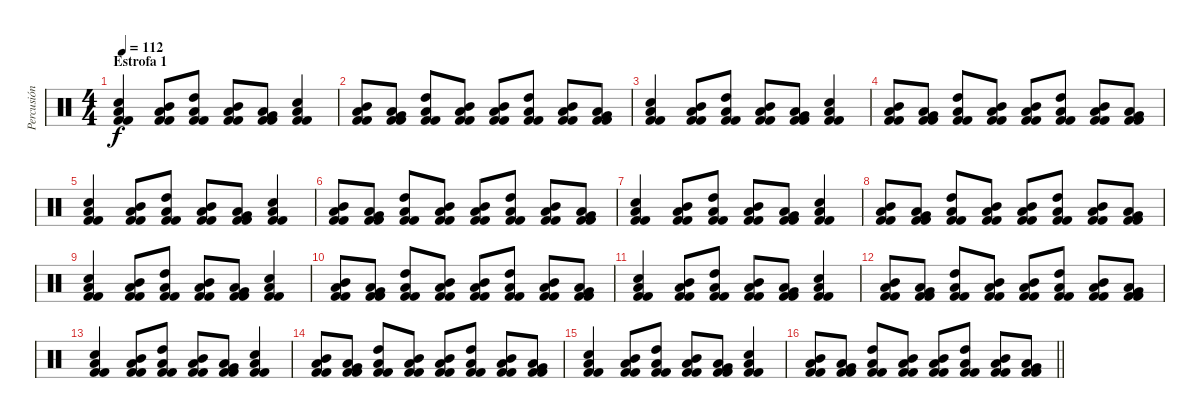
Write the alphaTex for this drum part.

\track ("Percusión" "Percusión") {instrument percussion}
\staff {score}
\articulation defaults
\ts (4 4)
\section ("" "Estrofa 1")
\tempo 112
\clef neutral
\ks c
("Kick (hit) 2" "Electric Snare (hit)" "Low Tom (hit)" "Kick (hit) 2").4{dy f} ("Kick (hit) 2" "Mid Tom (hit)" "Low Tom (hit)" "Kick (hit) 2").8 ("Kick (hit) 2" "High Tom (hit)" "Low Tom (hit)" "Kick (hit) 2").8 ("Kick (hit) 2" "Mid Tom (hit)" "Low Tom (hit)" "Kick (hit) 2").8 ("Kick (hit) 2" "Low Tom (hit)" "Very Low Tom (hit)" "Kick (hit) 2").8 ("Kick (hit) 2" "Electric Snare (hit)" "Low Tom (hit)" "Kick (hit) 2").4 |
("Kick (hit) 2" "Low Tom (hit)" "Mid Tom (hit)" "Kick (hit) 2").8 ("Kick (hit) 2" "Very Low Tom (hit)" "Low Tom (hit)" "Kick (hit) 2").8 ("Kick (hit) 2" "High Tom (hit)" "Low Tom (hit)" "Kick (hit) 2").8 ("Kick (hit) 2" "Low Tom (hit)" "Mid Tom (hit)" "Kick (hit) 2").8 ("Kick (hit) 2" "Low Tom (hit)" "Mid Tom (hit)" "Kick (hit) 2").8 ("Kick (hit) 2" "High Tom (hit)" "Low Tom (hit)" "Kick (hit) 2").8 ("Kick (hit) 2" "Low Tom (hit)" "Mid Tom (hit)" "Kick (hit) 2").8 ("Kick (hit) 2" "Very Low Tom (hit)" "Low Tom (hit)" "Kick (hit) 2").8 |
("Kick (hit) 2" "Electric Snare (hit)" "Low Tom (hit)" "Kick (hit) 2").4 ("Kick (hit) 2" "Mid Tom (hit)" "Low Tom (hit)" "Kick (hit) 2").8 ("Kick (hit) 2" "High Tom (hit)" "Low Tom (hit)" "Kick (hit) 2").8 ("Kick (hit) 2" "Mid Tom (hit)" "Low Tom (hit)" "Kick (hit) 2").8 ("Kick (hit) 2" "Low Tom (hit)" "Very Low Tom (hit)" "Kick (hit) 2").8 ("Kick (hit) 2" "Electric Snare (hit)" "Low Tom (hit)" "Kick (hit) 2").4 |
("Kick (hit) 2" "Low Tom (hit)" "Mid Tom (hit)" "Kick (hit) 2").8 ("Kick (hit) 2" "Very Low Tom (hit)" "Low Tom (hit)" "Kick (hit) 2").8 ("Kick (hit) 2" "High Tom (hit)" "Low Tom (hit)" "Kick (hit) 2").8 ("Kick (hit) 2" "Low Tom (hit)" "Mid Tom (hit)" "Kick (hit) 2").8 ("Kick (hit) 2" "Low Tom (hit)" "Mid Tom (hit)" "Kick (hit) 2").8 ("Kick (hit) 2" "High Tom (hit)" "Low Tom (hit)" "Kick (hit) 2").8 ("Kick (hit) 2" "Low Tom (hit)" "Mid Tom (hit)" "Kick (hit) 2").8 ("Kick (hit) 2" "Very Low Tom (hit)" "Low Tom (hit)" "Kick (hit) 2").8 |
("Kick (hit) 2" "Electric Snare (hit)" "Low Tom (hit)" "Kick (hit) 2").4 ("Kick (hit) 2" "Mid Tom (hit)" "Low Tom (hit)" "Kick (hit) 2").8 ("Kick (hit) 2" "High Tom (hit)" "Low Tom (hit)" "Kick (hit) 2").8 ("Kick (hit) 2" "Mid Tom (hit)" "Low Tom (hit)" "Kick (hit) 2").8 ("Kick (hit) 2" "Low Tom (hit)" "Very Low Tom (hit)" "Kick (hit) 2").8 ("Kick (hit) 2" "Electric Snare (hit)" "Low Tom (hit)" "Kick (hit) 2").4 |
("Kick (hit) 2" "Low Tom (hit)" "Mid Tom (hit)" "Kick (hit) 2").8 ("Kick (hit) 2" "Very Low Tom (hit)" "Low Tom (hit)" "Kick (hit) 2").8 ("Kick (hit) 2" "High Tom (hit)" "Low Tom (hit)" "Kick (hit) 2").8 ("Kick (hit) 2" "Low Tom (hit)" "Mid Tom (hit)" "Kick (hit) 2").8 ("Kick (hit) 2" "Low Tom (hit)" "Mid Tom (hit)" "Kick (hit) 2").8 ("Kick (hit) 2" "High Tom (hit)" "Low Tom (hit)" "Kick (hit) 2").8 ("Kick (hit) 2" "Low Tom (hit)" "Mid Tom (hit)" "Kick (hit) 2").8 ("Kick (hit) 2" "Very Low Tom (hit)" "Low Tom (hit)" "Kick (hit) 2").8 |
("Kick (hit) 2" "Electric Snare (hit)" "Low Tom (hit)" "Kick (hit) 2").4 ("Kick (hit) 2" "Mid Tom (hit)" "Low Tom (hit)" "Kick (hit) 2").8 ("Kick (hit) 2" "High Tom (hit)" "Low Tom (hit)" "Kick (hit) 2").8 ("Kick (hit) 2" "Mid Tom (hit)" "Low Tom (hit)" "Kick (hit) 2").8 ("Kick (hit) 2" "Low Tom (hit)" "Very Low Tom (hit)" "Kick (hit) 2").8 ("Kick (hit) 2" "Electric Snare (hit)" "Low Tom (hit)" "Kick (hit) 2").4 |
("Kick (hit) 2" "Low Tom (hit)" "Mid Tom (hit)" "Kick (hit) 2").8 ("Kick (hit) 2" "Very Low Tom (hit)" "Low Tom (hit)" "Kick (hit) 2").8 ("Kick (hit) 2" "High Tom (hit)" "Low Tom (hit)" "Kick (hit) 2").8 ("Kick (hit) 2" "Low Tom (hit)" "Mid Tom (hit)" "Kick (hit) 2").8 ("Kick (hit) 2" "Low Tom (hit)" "Mid Tom (hit)" "Kick (hit) 2").8 ("Kick (hit) 2" "High Tom (hit)" "Low Tom (hit)" "Kick (hit) 2").8 ("Kick (hit) 2" "Low Tom (hit)" "Mid Tom (hit)" "Kick (hit) 2").8 ("Kick (hit) 2" "Very Low Tom (hit)" "Low Tom (hit)" "Kick (hit) 2").8 |
("Kick (hit) 2" "Electric Snare (hit)" "Low Tom (hit)" "Kick (hit) 2").4 ("Kick (hit) 2" "Mid Tom (hit)" "Low Tom (hit)" "Kick (hit) 2").8 ("Kick (hit) 2" "High Tom (hit)" "Low Tom (hit)" "Kick (hit) 2").8 ("Kick (hit) 2" "Mid Tom (hit)" "Low Tom (hit)" "Kick (hit) 2").8 ("Kick (hit) 2" "Low Tom (hit)" "Very Low Tom (hit)" "Kick (hit) 2").8 ("Kick (hit) 2" "Electric Snare (hit)" "Low Tom (hit)" "Kick (hit) 2").4 |
("Kick (hit) 2" "Low Tom (hit)" "Mid Tom (hit)" "Kick (hit) 2").8 ("Kick (hit) 2" "Very Low Tom (hit)" "Low Tom (hit)" "Kick (hit) 2").8 ("Kick (hit) 2" "High Tom (hit)" "Low Tom (hit)" "Kick (hit) 2").8 ("Kick (hit) 2" "Low Tom (hit)" "Mid Tom (hit)" "Kick (hit) 2").8 ("Kick (hit) 2" "Low Tom (hit)" "Mid Tom (hit)" "Kick (hit) 2").8 ("Kick (hit) 2" "High Tom (hit)" "Low Tom (hit)" "Kick (hit) 2").8 ("Kick (hit) 2" "Low Tom (hit)" "Mid Tom (hit)" "Kick (hit) 2").8 ("Kick (hit) 2" "Very Low Tom (hit)" "Low Tom (hit)" "Kick (hit) 2").8 |
("Kick (hit) 2" "Electric Snare (hit)" "Low Tom (hit)" "Kick (hit) 2").4 ("Kick (hit) 2" "Mid Tom (hit)" "Low Tom (hit)" "Kick (hit) 2").8 ("Kick (hit) 2" "High Tom (hit)" "Low Tom (hit)" "Kick (hit) 2").8 ("Kick (hit) 2" "Mid Tom (hit)" "Low Tom (hit)" "Kick (hit) 2").8 ("Kick (hit) 2" "Low Tom (hit)" "Very Low Tom (hit)" "Kick (hit) 2").8 ("Kick (hit) 2" "Electric Snare (hit)" "Low Tom (hit)" "Kick (hit) 2").4 |
("Kick (hit) 2" "Low Tom (hit)" "Mid Tom (hit)" "Kick (hit) 2").8 ("Kick (hit) 2" "Very Low Tom (hit)" "Low Tom (hit)" "Kick (hit) 2").8 ("Kick (hit) 2" "High Tom (hit)" "Low Tom (hit)" "Kick (hit) 2").8 ("Kick (hit) 2" "Low Tom (hit)" "Mid Tom (hit)" "Kick (hit) 2").8 ("Kick (hit) 2" "Low Tom (hit)" "Mid Tom (hit)" "Kick (hit) 2").8 ("Kick (hit) 2" "High Tom (hit)" "Low Tom (hit)" "Kick (hit) 2").8 ("Kick (hit) 2" "Low Tom (hit)" "Mid Tom (hit)" "Kick (hit) 2").8 ("Kick (hit) 2" "Very Low Tom (hit)" "Low Tom (hit)" "Kick (hit) 2").8 |
("Kick (hit) 2" "Electric Snare (hit)" "Low Tom (hit)" "Kick (hit) 2").4 ("Kick (hit) 2" "Mid Tom (hit)" "Low Tom (hit)" "Kick (hit) 2").8 ("Kick (hit) 2" "High Tom (hit)" "Low Tom (hit)" "Kick (hit) 2").8 ("Kick (hit) 2" "Mid Tom (hit)" "Low Tom (hit)" "Kick (hit) 2").8 ("Kick (hit) 2" "Low Tom (hit)" "Very Low Tom (hit)" "Kick (hit) 2").8 ("Kick (hit) 2" "Electric Snare (hit)" "Low Tom (hit)" "Kick (hit) 2").4 |
("Kick (hit) 2" "Low Tom (hit)" "Mid Tom (hit)" "Kick (hit) 2").8 ("Kick (hit) 2" "Very Low Tom (hit)" "Low Tom (hit)" "Kick (hit) 2").8 ("Kick (hit) 2" "High Tom (hit)" "Low Tom (hit)" "Kick (hit) 2").8 ("Kick (hit) 2" "Low Tom (hit)" "Mid Tom (hit)" "Kick (hit) 2").8 ("Kick (hit) 2" "Low Tom (hit)" "Mid Tom (hit)" "Kick (hit) 2").8 ("Kick (hit) 2" "High Tom (hit)" "Low Tom (hit)" "Kick (hit) 2").8 ("Kick (hit) 2" "Low Tom (hit)" "Mid Tom (hit)" "Kick (hit) 2").8 ("Kick (hit) 2" "Very Low Tom (hit)" "Low Tom (hit)" "Kick (hit) 2").8 |
("Kick (hit) 2" "Electric Snare (hit)" "Low Tom (hit)" "Kick (hit) 2").4 ("Kick (hit) 2" "Mid Tom (hit)" "Low Tom (hit)" "Kick (hit) 2").8 ("Kick (hit) 2" "High Tom (hit)" "Low Tom (hit)" "Kick (hit) 2").8 ("Kick (hit) 2" "Mid Tom (hit)" "Low Tom (hit)" "Kick (hit) 2").8 ("Kick (hit) 2" "Low Tom (hit)" "Very Low Tom (hit)" "Kick (hit) 2").8 ("Kick (hit) 2" "Electric Snare (hit)" "Low Tom (hit)" "Kick (hit) 2").4 |
\barLineRight lightlight
("Kick (hit) 2" "Low Tom (hit)" "Mid Tom (hit)" "Kick (hit) 2").8 ("Kick (hit) 2" "Very Low Tom (hit)" "Low Tom (hit)" "Kick (hit) 2").8 ("Kick (hit) 2" "High Tom (hit)" "Low Tom (hit)" "Kick (hit) 2").8 ("Kick (hit) 2" "Low Tom (hit)" "Mid Tom (hit)" "Kick (hit) 2").8 ("Kick (hit) 2" "Low Tom (hit)" "Mid Tom (hit)" "Kick (hit) 2").8 ("Kick (hit) 2" "High Tom (hit)" "Low Tom (hit)" "Kick (hit) 2").8 ("Kick (hit) 2" "Low Tom (hit)" "Mid Tom (hit)" "Kick (hit) 2").8 ("Kick (hit) 2" "Very Low Tom (hit)" "Low Tom (hit)" "Kick (hit) 2").8
